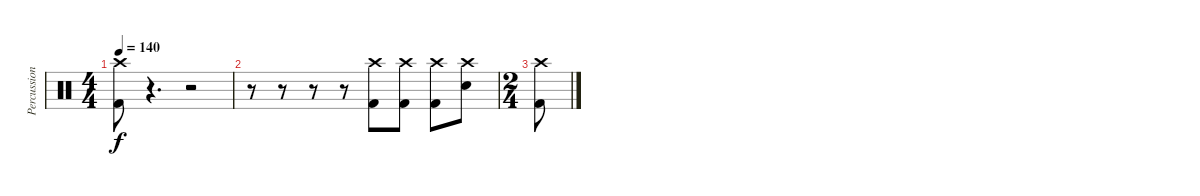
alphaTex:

\track ("Percussion" "Percussion") {instrument percussion}
\staff {score}
\articulation defaults
\ts (4 4)
\tempo 140
\clef neutral
\ks c
("Crash high (hit)" "Kick (hit) 2").8{dy f} r.4{d volume 0} r.2 |
r.8 r.8 r.8 r.8 ("Crash high (hit)" "Kick (hit) 2").8{volume 13} ("Crash high (hit)" "Kick (hit) 2").8 ("Crash high (hit)" "Kick (hit) 2").8 ("Crash high (hit)" "Electric Snare (hit)").8 |
\ts (2 4)
("Crash high (hit)" "Kick (hit) 2").8
